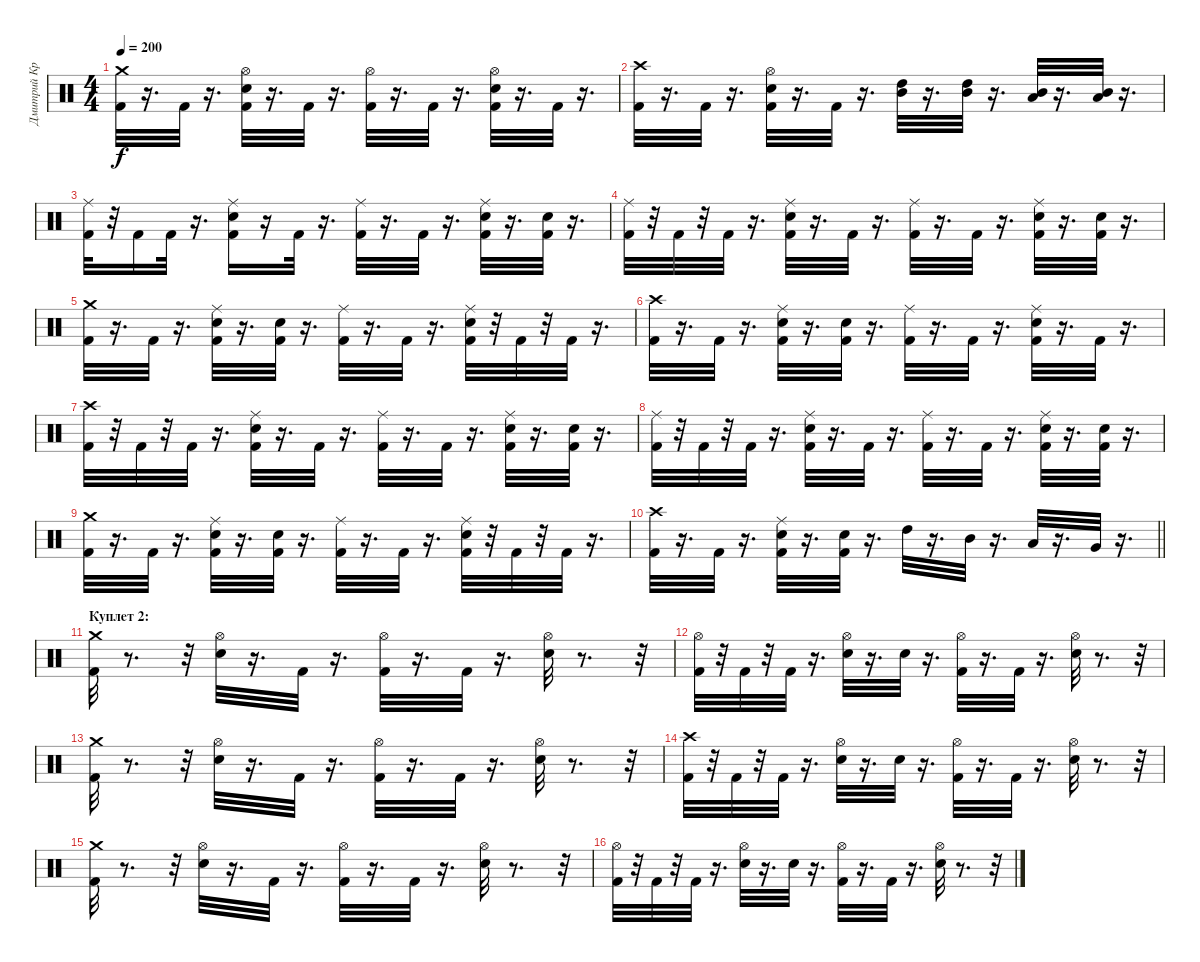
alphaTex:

\track ("Дмитрий Кривенков" "Дмитрий Кр") {instrument percussion}
\staff {score}
\articulation defaults
\ts (4 4)
\tempo 200
\clef neutral
\ks c
("Kick (hit) 2" "Crash medium (hit)").32{dy f} r.16{d} "Kick (hit) 2".32 r.16{d} ("Kick (hit) 2" "Electric Snare (hit)" "Hi-Hat (open)").32 r.16{d} "Kick (hit) 2".32 r.16{d} ("Kick (hit) 2" "Hi-Hat (open)").32 r.16{d} "Kick (hit) 2".32 r.16{d} ("Kick (hit) 2" "Hi-Hat (open)" "Electric Snare (hit)").32 r.16{d} "Kick (hit) 2".32 r.16{d} |
("Kick (hit) 2" "Crash high (hit)").32 r.16{d} "Kick (hit) 2".32 r.16{d} ("Kick (hit) 2" "Electric Snare (hit)" "Hi-Hat (open)").32 r.16{d} "Kick (hit) 2".32 r.16{d} ("Mid Tom (hit)" "High Tom (hit)").32 r.16{d} ("Mid Tom (hit)" "High Tom (hit)").32 r.16{d} ("Low Tom (hit)" "Mid Tom (hit)").32 r.16{d} ("Low Tom (hit)" "Mid Tom (hit)").32 r.16{d} |
("Ride (middle)" "Kick (hit) 2").32 r.32 "Kick (hit) 2".16 "Kick (hit) 2".32 r.16{d} ("Ride (middle)" "Electric Snare (hit)" "Kick (hit) 2").16 r.16 "Kick (hit) 2".32 r.16{d} ("Ride (middle)" "Kick (hit) 2").32 r.16{d} "Kick (hit) 2".32 r.16{d} ("Kick (hit) 2" "Ride (middle)" "Electric Snare (hit)").32 r.16{d} ("Kick (hit) 2" "Electric Snare (hit)").32 r.16{d} |
("Ride (middle)" "Kick (hit) 2").32 r.32 "Kick (hit) 2".32 r.32 "Kick (hit) 2".32 r.16{d} ("Ride (middle)" "Electric Snare (hit)" "Kick (hit) 2").32 r.16{d} "Kick (hit) 2".32 r.16{d} ("Ride (middle)" "Kick (hit) 2").32 r.16{d} "Kick (hit) 2".32 r.16{d} ("Ride (middle)" "Electric Snare (hit)" "Kick (hit) 2").32 r.16{d} ("Electric Snare (hit)" "Kick (hit) 2").32 r.16{d} |
("Kick (hit) 2" "Crash medium (hit)").32 r.16{d} "Kick (hit) 2".32 r.16{d} ("Kick (hit) 2" "Electric Snare (hit)" "Ride (middle)").32 r.16{d} ("Electric Snare (hit)" "Kick (hit) 2").32 r.16{d} ("Kick (hit) 2" "Ride (middle)").32 r.16{d} "Kick (hit) 2".32 r.16{d} ("Kick (hit) 2" "Ride (middle)" "Electric Snare (hit)").32 r.32 "Kick (hit) 2".32 r.32 "Kick (hit) 2".32 r.16{d} |
("Kick (hit) 2" "Crash high (hit)").32 r.16{d} "Kick (hit) 2".32 r.16{d} ("Kick (hit) 2" "Electric Snare (hit)" "Ride (middle)").32 r.16{d} ("Electric Snare (hit)" "Kick (hit) 2").32 r.16{d} ("Ride (middle)" "Kick (hit) 2").32 r.16{d} "Kick (hit) 2".32 r.16{d} ("Kick (hit) 2" "Electric Snare (hit)" "Ride (middle)").32 r.16{d} "Kick (hit) 2".32 r.16{d} |
("Crash high (hit)" "Kick (hit) 2").32 r.32 "Kick (hit) 2".32 r.32 "Kick (hit) 2".32 r.16{d} ("Ride (middle)" "Electric Snare (hit)" "Kick (hit) 2").32 r.16{d} "Kick (hit) 2".32 r.16{d} ("Ride (middle)" "Kick (hit) 2").32 r.16{d} "Kick (hit) 2".32 r.16{d} ("Ride (middle)" "Electric Snare (hit)" "Kick (hit) 2").32 r.16{d} ("Electric Snare (hit)" "Kick (hit) 2").32 r.16{d} |
("Ride (middle)" "Kick (hit) 2").32 r.32 "Kick (hit) 2".32 r.32 "Kick (hit) 2".32 r.16{d} ("Ride (middle)" "Electric Snare (hit)" "Kick (hit) 2").32 r.16{d} "Kick (hit) 2".32 r.16{d} ("Ride (middle)" "Kick (hit) 2").32 r.16{d} "Kick (hit) 2".32 r.16{d} ("Ride (middle)" "Electric Snare (hit)" "Kick (hit) 2").32 r.16{d} ("Electric Snare (hit)" "Kick (hit) 2").32 r.16{d} |
("Kick (hit) 2" "Crash medium (hit)").32 r.16{d} "Kick (hit) 2".32 r.16{d} ("Kick (hit) 2" "Electric Snare (hit)" "Ride (middle)").32 r.16{d} ("Electric Snare (hit)" "Kick (hit) 2").32 r.16{d} ("Kick (hit) 2" "Ride (middle)").32 r.16{d} "Kick (hit) 2".32 r.16{d} ("Kick (hit) 2" "Ride (middle)" "Electric Snare (hit)").32 r.32 "Kick (hit) 2".32 r.32 "Kick (hit) 2".32 r.16{d} |
\barLineRight lightlight
("Kick (hit) 2" "Crash high (hit)").32 r.16{d} "Kick (hit) 2".32 r.16{d} ("Kick (hit) 2" "Electric Snare (hit)" "Ride (middle)").32 r.16{d} ("Electric Snare (hit)" "Kick (hit) 2").32 r.16{d} "High Tom (hit)".32 r.16{d} "Mid Tom (hit)".32 r.16{d} "Low Tom (hit)".32 r.16{d} "Very Low Tom (hit)".32 r.16{d} |
\section ("" "Куплет 2:")
("Crash medium (hit)" "Kick (hit) 2").32 r.8{d} r.32 ("Hi-Hat (open)" "Electric Snare (hit)").32 r.16{d} "Kick (hit) 2".32 r.16{d} ("Hi-Hat (open)" "Kick (hit) 2").32 r.16{d} "Kick (hit) 2".32 r.16{d} ("Hi-Hat (open)" "Electric Snare (hit)").32 r.8{d} r.32 |
("Hi-Hat (open)" "Kick (hit) 2").32 r.32 "Kick (hit) 2".32 r.32 "Kick (hit) 2".32 r.16{d} ("Hi-Hat (open)" "Electric Snare (hit)").32 r.16{d} "Electric Snare (hit)".32 r.16{d} ("Hi-Hat (open)" "Kick (hit) 2").32 r.16{d} "Kick (hit) 2".32 r.16{d} ("Hi-Hat (open)" "Electric Snare (hit)").32 r.8{d} r.32 |
("Crash medium (hit)" "Kick (hit) 2").32 r.8{d} r.32 ("Hi-Hat (open)" "Electric Snare (hit)").32 r.16{d} "Kick (hit) 2".32 r.16{d} ("Hi-Hat (open)" "Kick (hit) 2").32 r.16{d} "Kick (hit) 2".32 r.16{d} ("Hi-Hat (open)" "Electric Snare (hit)").32 r.8{d} r.32 |
("Crash high (hit)" "Kick (hit) 2").32 r.32 "Kick (hit) 2".32 r.32 "Kick (hit) 2".32 r.16{d} ("Hi-Hat (open)" "Electric Snare (hit)").32 r.16{d} "Electric Snare (hit)".32 r.16{d} ("Hi-Hat (open)" "Kick (hit) 2").32 r.16{d} "Kick (hit) 2".32 r.16{d} ("Hi-Hat (open)" "Electric Snare (hit)").32 r.8{d} r.32 |
("Crash medium (hit)" "Kick (hit) 2").32 r.8{d} r.32 ("Hi-Hat (open)" "Electric Snare (hit)").32 r.16{d} "Kick (hit) 2".32 r.16{d} ("Hi-Hat (open)" "Kick (hit) 2").32 r.16{d} "Kick (hit) 2".32 r.16{d} ("Hi-Hat (open)" "Electric Snare (hit)").32 r.8{d} r.32 |
("Hi-Hat (open)" "Kick (hit) 2").32 r.32 "Kick (hit) 2".32 r.32 "Kick (hit) 2".32 r.16{d} ("Hi-Hat (open)" "Electric Snare (hit)").32 r.16{d} "Electric Snare (hit)".32 r.16{d} ("Hi-Hat (open)" "Kick (hit) 2").32 r.16{d} "Kick (hit) 2".32 r.16{d} ("Hi-Hat (open)" "Electric Snare (hit)").32 r.8{d} r.32
